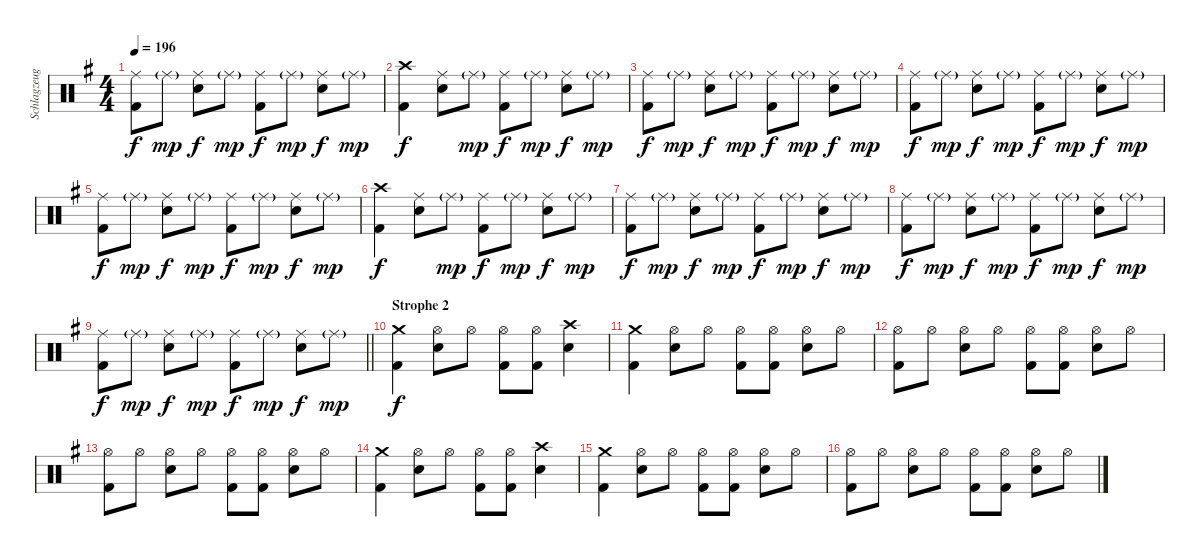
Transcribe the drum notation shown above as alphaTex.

\track ("Schlagzeug" "Schlagzeug") {instrument percussion}
\staff {score}
\articulation defaults
\ts (4 4)
\tempo 196
\clef neutral
\ks g
("Ride (middle)" "Kick (hit) 2").8{dy f} "Ride (middle)"{g}.8{dy mp} ("Ride (middle)" "Snare (hit) 2").8{dy f} "Ride (middle)"{g}.8{dy mp} ("Ride (middle)" "Kick (hit) 2").8{dy f} "Ride (middle)"{g}.8{dy mp} ("Ride (middle)" "Snare (hit) 2").8{dy f} "Ride (middle)"{g}.8{dy mp} |
("Crash high (hit)" "Kick (hit) 2").4{dy f} ("Ride (middle)" "Snare (hit) 2").8 "Ride (middle)"{g}.8{dy mp} ("Ride (middle)" "Kick (hit) 2").8{dy f} "Ride (middle)"{g}.8{dy mp} ("Ride (middle)" "Snare (hit) 2").8{dy f} "Ride (middle)"{g}.8{dy mp} |
("Ride (middle)" "Kick (hit) 2").8{dy f} "Ride (middle)"{g}.8{dy mp} ("Ride (middle)" "Snare (hit) 2").8{dy f} "Ride (middle)"{g}.8{dy mp} ("Ride (middle)" "Kick (hit) 2").8{dy f} "Ride (middle)"{g}.8{dy mp} ("Ride (middle)" "Snare (hit) 2").8{dy f} "Ride (middle)"{g}.8{dy mp} |
("Ride (middle)" "Kick (hit) 2").8{dy f} "Ride (middle)"{g}.8{dy mp} ("Ride (middle)" "Snare (hit) 2").8{dy f} "Ride (middle)"{g}.8{dy mp} ("Ride (middle)" "Kick (hit) 2").8{dy f} "Ride (middle)"{g}.8{dy mp} ("Ride (middle)" "Snare (hit) 2").8{dy f} "Ride (middle)"{g}.8{dy mp} |
("Ride (middle)" "Kick (hit) 2").8{dy f} "Ride (middle)"{g}.8{dy mp} ("Ride (middle)" "Snare (hit) 2").8{dy f} "Ride (middle)"{g}.8{dy mp} ("Ride (middle)" "Kick (hit) 2").8{dy f} "Ride (middle)"{g}.8{dy mp} ("Ride (middle)" "Snare (hit) 2").8{dy f} "Ride (middle)"{g}.8{dy mp} |
("Crash high (hit)" "Kick (hit) 2").4{dy f} ("Ride (middle)" "Snare (hit) 2").8 "Ride (middle)"{g}.8{dy mp} ("Ride (middle)" "Kick (hit) 2").8{dy f} "Ride (middle)"{g}.8{dy mp} ("Ride (middle)" "Snare (hit) 2").8{dy f} "Ride (middle)"{g}.8{dy mp} |
("Ride (middle)" "Kick (hit) 2").8{dy f} "Ride (middle)"{g}.8{dy mp} ("Ride (middle)" "Snare (hit) 2").8{dy f} "Ride (middle)"{g}.8{dy mp} ("Ride (middle)" "Kick (hit) 2").8{dy f} "Ride (middle)"{g}.8{dy mp} ("Ride (middle)" "Snare (hit) 2").8{dy f} "Ride (middle)"{g}.8{dy mp} |
("Ride (middle)" "Kick (hit) 2").8{dy f} "Ride (middle)"{g}.8{dy mp} ("Ride (middle)" "Snare (hit) 2").8{dy f} "Ride (middle)"{g}.8{dy mp} ("Ride (middle)" "Kick (hit) 2").8{dy f} "Ride (middle)"{g}.8{dy mp} ("Ride (middle)" "Snare (hit) 2").8{dy f} "Ride (middle)"{g}.8{dy mp} |
\barLineRight lightlight
("Ride (middle)" "Kick (hit) 2").8{dy f} "Ride (middle)"{g}.8{dy mp} ("Ride (middle)" "Snare (hit) 2").8{dy f} "Ride (middle)"{g}.8{dy mp} ("Ride (middle)" "Kick (hit) 2").8{dy f} "Ride (middle)"{g}.8{dy mp} ("Ride (middle)" "Snare (hit) 2").8{dy f} "Ride (middle)"{g}.8{dy mp} |
\section ("" "Strophe 2")
("Crash medium (hit)" "Kick (hit) 2").4{dy f} ("Hi-Hat (open)" "Snare (hit) 2").8 "Hi-Hat (open)".8 ("Hi-Hat (open)" "Kick (hit) 2").8 ("Hi-Hat (open)" "Kick (hit) 2").8 ("Crash high (hit)" "Snare (hit) 2").4 |
("Crash medium (hit)" "Kick (hit) 2").4 ("Hi-Hat (open)" "Snare (hit) 2").8 "Hi-Hat (open)".8 ("Hi-Hat (open)" "Kick (hit) 2").8 ("Hi-Hat (open)" "Kick (hit) 2").8 ("Hi-Hat (open)" "Snare (hit) 2").8 "Hi-Hat (open)".8 |
("Hi-Hat (open)" "Kick (hit) 2").8 "Hi-Hat (open)".8 ("Hi-Hat (open)" "Snare (hit) 2").8 "Hi-Hat (open)".8 ("Hi-Hat (open)" "Kick (hit) 2").8 ("Hi-Hat (open)" "Kick (hit) 2").8 ("Hi-Hat (open)" "Snare (hit) 2").8 "Hi-Hat (open)".8 |
("Hi-Hat (open)" "Kick (hit) 2").8 "Hi-Hat (open)".8 ("Hi-Hat (open)" "Snare (hit) 2").8 "Hi-Hat (open)".8 ("Hi-Hat (open)" "Kick (hit) 2").8 ("Hi-Hat (open)" "Kick (hit) 2").8 ("Hi-Hat (open)" "Snare (hit) 2").8 "Hi-Hat (open)".8 |
("Crash medium (hit)" "Kick (hit) 2").4 ("Hi-Hat (open)" "Snare (hit) 2").8 "Hi-Hat (open)".8 ("Hi-Hat (open)" "Kick (hit) 2").8 ("Hi-Hat (open)" "Kick (hit) 2").8 ("Crash high (hit)" "Snare (hit) 2").4 |
("Crash medium (hit)" "Kick (hit) 2").4 ("Hi-Hat (open)" "Snare (hit) 2").8 "Hi-Hat (open)".8 ("Hi-Hat (open)" "Kick (hit) 2").8 ("Hi-Hat (open)" "Kick (hit) 2").8 ("Hi-Hat (open)" "Snare (hit) 2").8 "Hi-Hat (open)".8 |
("Hi-Hat (open)" "Kick (hit) 2").8 "Hi-Hat (open)".8 ("Hi-Hat (open)" "Snare (hit) 2").8 "Hi-Hat (open)".8 ("Hi-Hat (open)" "Kick (hit) 2").8 ("Hi-Hat (open)" "Kick (hit) 2").8 ("Hi-Hat (open)" "Snare (hit) 2").8 "Hi-Hat (open)".8
